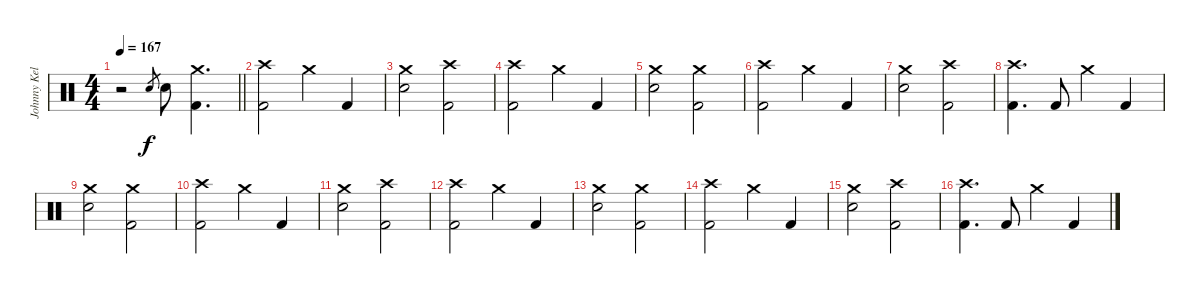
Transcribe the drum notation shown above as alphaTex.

\track ("Johnny Kelly" "Johnny Kel") {instrument percussion}
\staff {score}
\articulation defaults
\ts (4 4)
\tempo 167
\clef neutral
\barLineRight lightlight
\ks c
r.2{dy mp} "Electric Snare (hit)".8{gr dy f} "Electric Snare (hit)".8 ("Crash medium (hit)" "Kick (hit) 2").4{d} |
\section ("" "")
("Crash high (hit)" "Kick (hit) 2").2 "Crash medium (hit)".4 "Kick (hit) 2".4 |
("Crash medium (hit)" "Electric Snare (hit)").2 ("Crash high (hit)" "Kick (hit) 2").2 |
("Crash high (hit)" "Kick (hit) 2").2 "Crash medium (hit)".4 "Kick (hit) 2".4 |
("Crash medium (hit)" "Electric Snare (hit)").2 ("Crash medium (hit)" "Kick (hit) 2").2 |
("Crash high (hit)" "Kick (hit) 2").2 "Crash medium (hit)".4 "Kick (hit) 2".4 |
("Crash medium (hit)" "Electric Snare (hit)").2 ("Crash high (hit)" "Kick (hit) 2").2 |
("Crash high (hit)" "Kick (hit) 2").4{d} "Kick (hit) 2".8 "Crash medium (hit)".4 "Kick (hit) 2".4 |
("Crash medium (hit)" "Electric Snare (hit)").2 ("Crash medium (hit)" "Kick (hit) 2").2 |
("Crash high (hit)" "Kick (hit) 2").2 "Crash medium (hit)".4 "Kick (hit) 2".4 |
("Crash medium (hit)" "Electric Snare (hit)").2 ("Crash high (hit)" "Kick (hit) 2").2 |
("Crash high (hit)" "Kick (hit) 2").2 "Crash medium (hit)".4 "Kick (hit) 2".4 |
("Crash medium (hit)" "Electric Snare (hit)").2 ("Crash medium (hit)" "Kick (hit) 2").2 |
("Crash high (hit)" "Kick (hit) 2").2 "Crash medium (hit)".4 "Kick (hit) 2".4 |
("Crash medium (hit)" "Electric Snare (hit)").2 ("Crash high (hit)" "Kick (hit) 2").2 |
("Crash high (hit)" "Kick (hit) 2").4{d} "Kick (hit) 2".8 "Crash medium (hit)".4 "Kick (hit) 2".4
